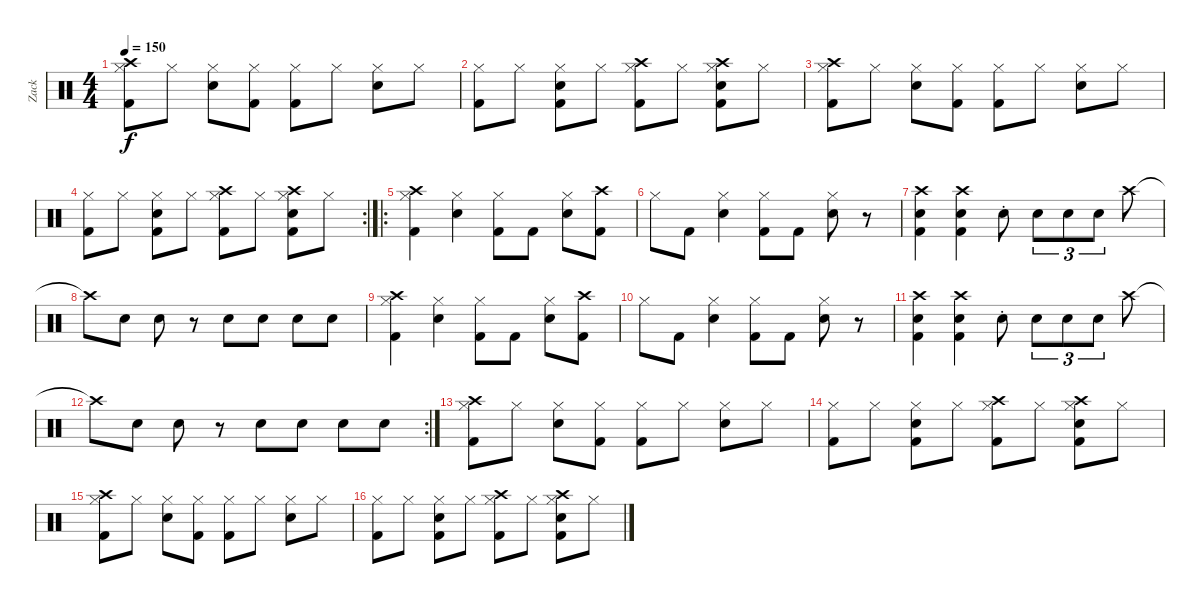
\track ("Zack" "Zack") {instrument percussion}
\staff {score}
\articulation defaults
\ts (4 4)
\tempo 150
\clef neutral
\ks c
("Hi-Hat (closed)" "Crash high (hit)" "Kick (hit) 2").8{dy f} "Hi-Hat (closed)".8 ("Hi-Hat (closed)" "Snare (hit) 2").8 ("Hi-Hat (closed)" "Kick (hit) 2").8 ("Hi-Hat (closed)" "Kick (hit) 2").8 "Hi-Hat (closed)".8 ("Hi-Hat (closed)" "Snare (hit) 2").8 "Hi-Hat (closed)".8 |
("Hi-Hat (closed)" "Kick (hit) 2").8 "Hi-Hat (closed)".8 ("Hi-Hat (closed)" "Snare (hit) 2" "Kick (hit) 2").8 "Hi-Hat (closed)".8 ("Hi-Hat (closed)" "Crash high (hit)" "Kick (hit) 2").8 "Hi-Hat (closed)".8 ("Hi-Hat (closed)" "Crash high (hit)" "Snare (hit) 2" "Kick (hit) 2").8 "Hi-Hat (closed)".8 |
("Hi-Hat (closed)" "Crash high (hit)" "Kick (hit) 2").8 "Hi-Hat (closed)".8 ("Hi-Hat (closed)" "Snare (hit) 2").8 ("Hi-Hat (closed)" "Kick (hit) 2").8 ("Hi-Hat (closed)" "Kick (hit) 2").8 "Hi-Hat (closed)".8 ("Hi-Hat (closed)" "Snare (hit) 2").8 "Hi-Hat (closed)".8 |
\rc 2
("Hi-Hat (closed)" "Kick (hit) 2").8 "Hi-Hat (closed)".8 ("Hi-Hat (closed)" "Snare (hit) 2" "Kick (hit) 2").8 "Hi-Hat (closed)".8 ("Hi-Hat (closed)" "Crash high (hit)" "Kick (hit) 2").8 "Hi-Hat (closed)".8 ("Hi-Hat (closed)" "Crash high (hit)" "Snare (hit) 2" "Kick (hit) 2").8 "Hi-Hat (closed)".8 |
\ro
("Hi-Hat (closed)" "Crash high (hit)" "Kick (hit) 2").4 ("Hi-Hat (closed)" "Snare (hit) 2").4 ("Hi-Hat (closed)" "Kick (hit) 2").8 "Kick (hit) 2".8 ("Hi-Hat (closed)" "Snare (hit) 2").8 ("Crash high (hit)" "Kick (hit) 2").8 |
"Hi-Hat (closed)".8 "Kick (hit) 2".8 ("Hi-Hat (closed)" "Snare (hit) 2").4 ("Hi-Hat (closed)" "Kick (hit) 2").8 "Kick (hit) 2".8 ("Hi-Hat (closed)" "Snare (hit) 2").8 r.8 |
("Crash high (hit)" "Snare (hit) 2" "Kick (hit) 2").4 ("Crash high (hit)" "Snare (hit) 2" "Kick (hit) 2").4 "Snare (hit) 2"{st}.8 "Snare (hit) 2".8{tu (3 2)} "Snare (hit) 2".8{tu (3 2)} "Snare (hit) 2".8{tu (3 2)} "Crash high (hit)".8 |
"Crash high (hit)"{t}.8 "Snare (hit) 2".8 "Snare (hit) 2".8 r.8 "Snare (hit) 2".8 "Snare (hit) 2".8 "Snare (hit) 2".8 "Snare (hit) 2".8 |
("Hi-Hat (closed)" "Crash high (hit)" "Kick (hit) 2").4 ("Hi-Hat (closed)" "Snare (hit) 2").4 ("Hi-Hat (closed)" "Kick (hit) 2").8 "Kick (hit) 2".8 ("Hi-Hat (closed)" "Snare (hit) 2").8 ("Crash high (hit)" "Kick (hit) 2").8 |
"Hi-Hat (closed)".8 "Kick (hit) 2".8 ("Hi-Hat (closed)" "Snare (hit) 2").4 ("Hi-Hat (closed)" "Kick (hit) 2").8 "Kick (hit) 2".8 ("Hi-Hat (closed)" "Snare (hit) 2").8 r.8 |
("Crash high (hit)" "Snare (hit) 2" "Kick (hit) 2").4 ("Crash high (hit)" "Snare (hit) 2" "Kick (hit) 2").4 "Snare (hit) 2"{st}.8 "Snare (hit) 2".8{tu (3 2)} "Snare (hit) 2".8{tu (3 2)} "Snare (hit) 2".8{tu (3 2)} "Crash high (hit)".8 |
\rc 2 "Crash high (hit)"{t}.8 "Snare (hit) 2".8 "Snare (hit) 2".8
r.8 "Snare (hit) 2".8 "Snare (hit) 2".8 "Snare (hit) 2".8 "Snare (hit) 2".8 |
("Hi-Hat (closed)" "Crash high (hit)" "Kick (hit) 2").8 "Hi-Hat (closed)".8 ("Hi-Hat (closed)" "Snare (hit) 2").8 ("Hi-Hat (closed)" "Kick (hit) 2").8 ("Hi-Hat (closed)" "Kick (hit) 2").8 "Hi-Hat (closed)".8 ("Hi-Hat (closed)" "Snare (hit) 2").8 "Hi-Hat (closed)".8 |
("Hi-Hat (closed)" "Kick (hit) 2").8 "Hi-Hat (closed)".8 ("Hi-Hat (closed)" "Snare (hit) 2" "Kick (hit) 2").8 "Hi-Hat (closed)".8 ("Hi-Hat (closed)" "Crash high (hit)" "Kick (hit) 2").8 "Hi-Hat (closed)".8 ("Hi-Hat (closed)" "Crash high (hit)" "Snare (hit) 2" "Kick (hit) 2").8 "Hi-Hat (closed)".8 |
("Hi-Hat (closed)" "Crash high (hit)" "Kick (hit) 2").8 "Hi-Hat (closed)".8 ("Hi-Hat (closed)" "Snare (hit) 2").8 ("Hi-Hat (closed)" "Kick (hit) 2").8 ("Hi-Hat (closed)" "Kick (hit) 2").8 "Hi-Hat (closed)".8 ("Hi-Hat (closed)" "Snare (hit) 2").8 "Hi-Hat (closed)".8 |
("Hi-Hat (closed)" "Kick (hit) 2").8 "Hi-Hat (closed)".8 ("Hi-Hat (closed)" "Snare (hit) 2" "Kick (hit) 2").8 "Hi-Hat (closed)".8 ("Hi-Hat (closed)" "Crash high (hit)" "Kick (hit) 2").8 "Hi-Hat (closed)".8 ("Hi-Hat (closed)" "Crash high (hit)" "Snare (hit) 2" "Kick (hit) 2").8 "Hi-Hat (closed)".8
